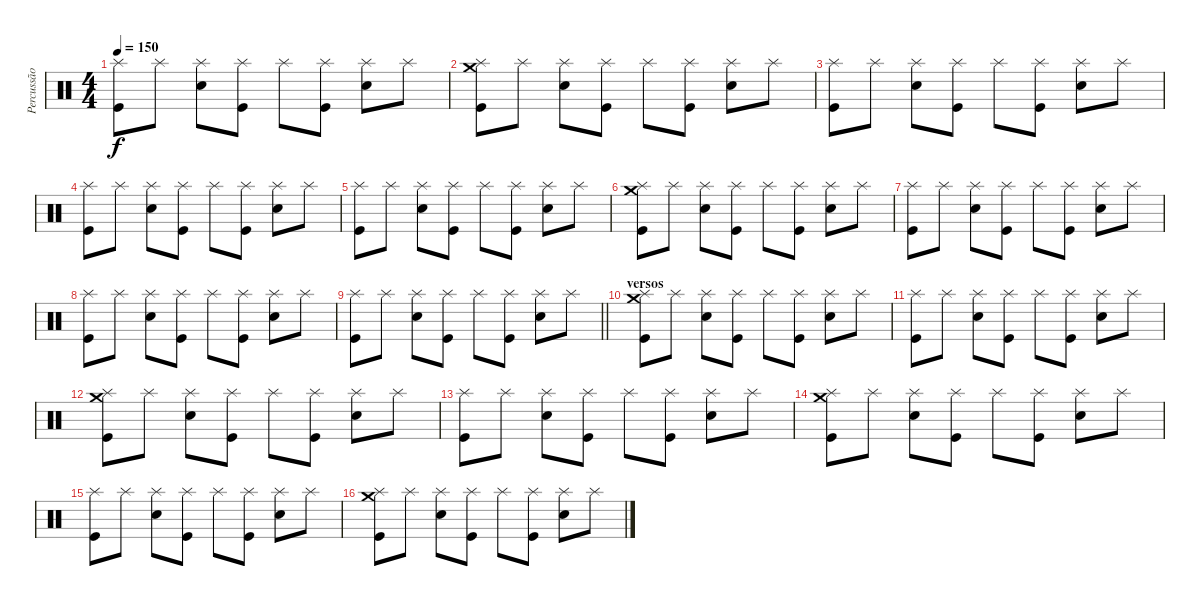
\track ("Percussão" "Percussão") {instrument percussion}
\staff {score}
\articulation defaults
\ts (4 4)
\tempo 150
\clef neutral
\ks c
("Splash (hit)" "Kick (hit)").8{dy f} "Splash (hit)".8 ("Splash (hit)" "Electric Snare (hit)").8 ("Splash (hit)" "Kick (hit)").8 "Splash (hit)".8 ("Splash (hit)" "Kick (hit)").8 ("Splash (hit)" "Electric Snare (hit)").8 "Splash (hit)".8 |
("Crash medium (hit)" "Splash (hit)" "Kick (hit)").8 "Splash (hit)".8 ("Splash (hit)" "Electric Snare (hit)").8 ("Splash (hit)" "Kick (hit)").8 "Splash (hit)".8 ("Splash (hit)" "Kick (hit)").8 ("Splash (hit)" "Electric Snare (hit)").8 "Splash (hit)".8 |
("Splash (hit)" "Kick (hit)").8 "Splash (hit)".8 ("Splash (hit)" "Electric Snare (hit)").8 ("Splash (hit)" "Kick (hit)").8 "Splash (hit)".8 ("Splash (hit)" "Kick (hit)").8 ("Splash (hit)" "Electric Snare (hit)").8 "Splash (hit)".8 |
("Splash (hit)" "Kick (hit)").8 "Splash (hit)".8 ("Splash (hit)" "Electric Snare (hit)").8 ("Splash (hit)" "Kick (hit)").8 "Splash (hit)".8 ("Splash (hit)" "Kick (hit)").8 ("Splash (hit)" "Electric Snare (hit)").8 "Splash (hit)".8 |
("Splash (hit)" "Kick (hit)").8 "Splash (hit)".8 ("Splash (hit)" "Electric Snare (hit)").8 ("Splash (hit)" "Kick (hit)").8 "Splash (hit)".8 ("Splash (hit)" "Kick (hit)").8 ("Splash (hit)" "Electric Snare (hit)").8 "Splash (hit)".8 |
("Crash medium (hit)" "Splash (hit)" "Kick (hit)").8 "Splash (hit)".8 ("Splash (hit)" "Electric Snare (hit)").8 ("Splash (hit)" "Kick (hit)").8 "Splash (hit)".8 ("Splash (hit)" "Kick (hit)").8 ("Splash (hit)" "Electric Snare (hit)").8 "Splash (hit)".8 |
("Splash (hit)" "Kick (hit)").8 "Splash (hit)".8 ("Splash (hit)" "Electric Snare (hit)").8 ("Splash (hit)" "Kick (hit)").8 "Splash (hit)".8 ("Splash (hit)" "Kick (hit)").8 ("Splash (hit)" "Electric Snare (hit)").8 "Splash (hit)".8 |
("Splash (hit)" "Kick (hit)").8 "Splash (hit)".8 ("Splash (hit)" "Electric Snare (hit)").8 ("Splash (hit)" "Kick (hit)").8 "Splash (hit)".8 ("Splash (hit)" "Kick (hit)").8 ("Splash (hit)" "Electric Snare (hit)").8 "Splash (hit)".8 |
\barLineRight lightlight
("Splash (hit)" "Kick (hit)").8 "Splash (hit)".8 ("Splash (hit)" "Electric Snare (hit)").8 ("Splash (hit)" "Kick (hit)").8 "Splash (hit)".8 ("Splash (hit)" "Kick (hit)").8 ("Splash (hit)" "Electric Snare (hit)").8 "Splash (hit)".8 |
\section ("" "versos")
("Crash medium (hit)" "Splash (hit)" "Kick (hit)").8 "Splash (hit)".8 ("Splash (hit)" "Electric Snare (hit)").8 ("Splash (hit)" "Kick (hit)").8 "Splash (hit)".8 ("Splash (hit)" "Kick (hit)").8 ("Splash (hit)" "Electric Snare (hit)").8 "Splash (hit)".8 |
("Splash (hit)" "Kick (hit)").8 "Splash (hit)".8 ("Splash (hit)" "Electric Snare (hit)").8 ("Splash (hit)" "Kick (hit)").8 "Splash (hit)".8 ("Splash (hit)" "Kick (hit)").8 ("Splash (hit)" "Electric Snare (hit)").8 "Splash (hit)".8 |
("Crash medium (hit)" "Splash (hit)" "Kick (hit)").8 "Splash (hit)".8 ("Splash (hit)" "Electric Snare (hit)").8 ("Splash (hit)" "Kick (hit)").8 "Splash (hit)".8 ("Splash (hit)" "Kick (hit)").8 ("Splash (hit)" "Electric Snare (hit)").8 "Splash (hit)".8 |
("Splash (hit)" "Kick (hit)").8 "Splash (hit)".8 ("Splash (hit)" "Electric Snare (hit)").8 ("Splash (hit)" "Kick (hit)").8 "Splash (hit)".8 ("Splash (hit)" "Kick (hit)").8 ("Splash (hit)" "Electric Snare (hit)").8 "Splash (hit)".8 |
("Crash medium (hit)" "Splash (hit)" "Kick (hit)").8 "Splash (hit)".8 ("Splash (hit)" "Electric Snare (hit)").8 ("Splash (hit)" "Kick (hit)").8 "Splash (hit)".8 ("Splash (hit)" "Kick (hit)").8 ("Splash (hit)" "Electric Snare (hit)").8 "Splash (hit)".8 |
("Splash (hit)" "Kick (hit)").8 "Splash (hit)".8 ("Splash (hit)" "Electric Snare (hit)").8 ("Splash (hit)" "Kick (hit)").8 "Splash (hit)".8 ("Splash (hit)" "Kick (hit)").8 ("Splash (hit)" "Electric Snare (hit)").8 "Splash (hit)".8 |
("Crash medium (hit)" "Splash (hit)" "Kick (hit)").8 "Splash (hit)".8 ("Splash (hit)" "Electric Snare (hit)").8 ("Splash (hit)" "Kick (hit)").8 "Splash (hit)".8 ("Splash (hit)" "Kick (hit)").8 ("Splash (hit)" "Electric Snare (hit)").8 "Splash (hit)".8
